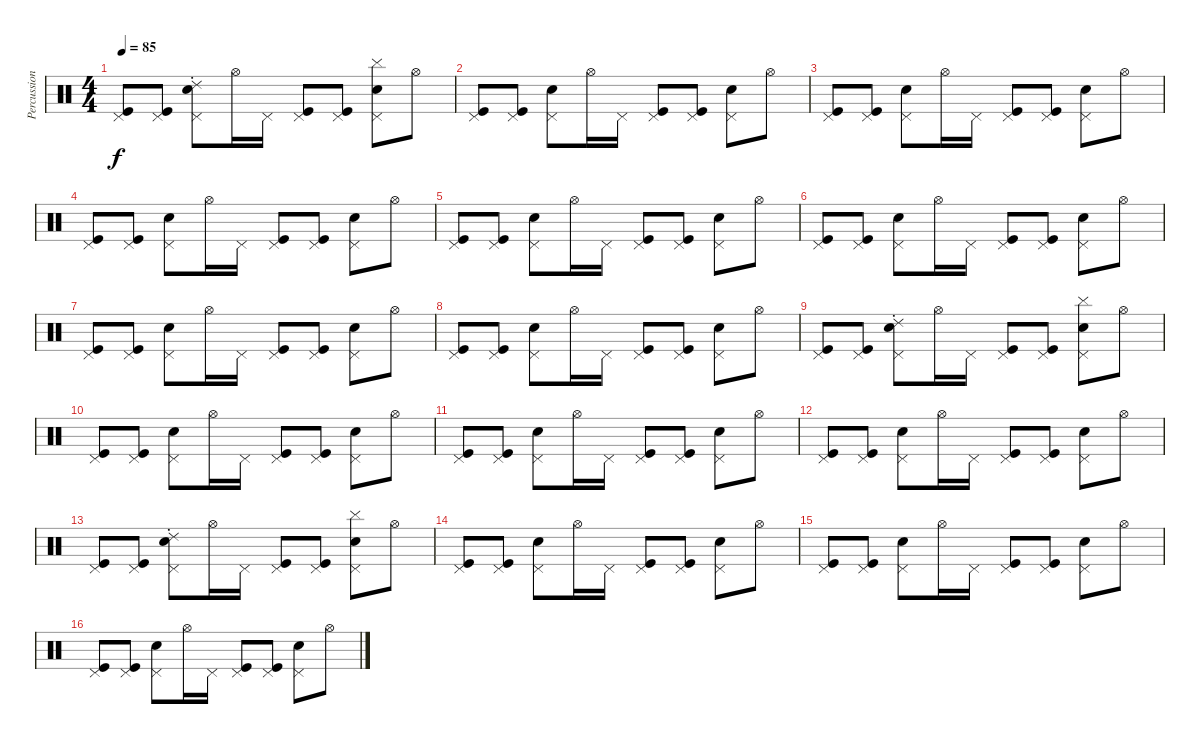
\track ("Percussions" "Percussion") {instrument percussion}
\staff {score}
\articulation defaults
\ts (4 4)
\tempo 85
\clef neutral
\ks c
("Pedal Hi-Hat (hit)" "Kick (hit)").8{dy f volume 16} ("Pedal Hi-Hat (hit)" "Kick (hit)").8 ("Pedal Hi-Hat (hit)" "Ride (choke) 2" "Electric Snare (hit)").8 "Hi-Hat (open)".16 "Pedal Hi-Hat (hit)".16 ("Pedal Hi-Hat (hit)" "Kick (hit)").8 ("Pedal Hi-Hat (hit)" "Kick (hit)").8 ("Pedal Hi-Hat (hit)" "Cymbal (hit)" "Electric Snare (hit)").8 "Hi-Hat (open)".8 |
("Pedal Hi-Hat (hit)" "Kick (hit)").8 ("Pedal Hi-Hat (hit)" "Kick (hit)").8 ("Pedal Hi-Hat (hit)" "Electric Snare (hit)").8 "Hi-Hat (open)".16 "Pedal Hi-Hat (hit)".16 ("Pedal Hi-Hat (hit)" "Kick (hit)").8 ("Pedal Hi-Hat (hit)" "Kick (hit)").8 ("Pedal Hi-Hat (hit)" "Electric Snare (hit)").8 "Hi-Hat (open)".8 |
("Pedal Hi-Hat (hit)" "Kick (hit)").8 ("Pedal Hi-Hat (hit)" "Kick (hit)").8 ("Pedal Hi-Hat (hit)" "Electric Snare (hit)").8 "Hi-Hat (open)".16 "Pedal Hi-Hat (hit)".16 ("Pedal Hi-Hat (hit)" "Kick (hit)").8 ("Pedal Hi-Hat (hit)" "Kick (hit)").8 ("Pedal Hi-Hat (hit)" "Electric Snare (hit)").8 "Hi-Hat (open)".8 |
("Pedal Hi-Hat (hit)" "Kick (hit)").8 ("Pedal Hi-Hat (hit)" "Kick (hit)").8 ("Pedal Hi-Hat (hit)" "Electric Snare (hit)").8 "Hi-Hat (open)".16 "Pedal Hi-Hat (hit)".16 ("Pedal Hi-Hat (hit)" "Kick (hit)").8 ("Pedal Hi-Hat (hit)" "Kick (hit)").8 ("Pedal Hi-Hat (hit)" "Electric Snare (hit)").8 "Hi-Hat (open)".8 |
("Pedal Hi-Hat (hit)" "Kick (hit)").8{volume 12} ("Pedal Hi-Hat (hit)" "Kick (hit)").8 ("Pedal Hi-Hat (hit)" "Electric Snare (hit)").8 "Hi-Hat (open)".16 "Pedal Hi-Hat (hit)".16 ("Pedal Hi-Hat (hit)" "Kick (hit)").8 ("Pedal Hi-Hat (hit)" "Kick (hit)").8 ("Pedal Hi-Hat (hit)" "Electric Snare (hit)").8 "Hi-Hat (open)".8 |
("Pedal Hi-Hat (hit)" "Kick (hit)").8 ("Pedal Hi-Hat (hit)" "Kick (hit)").8 ("Pedal Hi-Hat (hit)" "Electric Snare (hit)").8 "Hi-Hat (open)".16 "Pedal Hi-Hat (hit)".16 ("Pedal Hi-Hat (hit)" "Kick (hit)").8 ("Pedal Hi-Hat (hit)" "Kick (hit)").8 ("Pedal Hi-Hat (hit)" "Electric Snare (hit)").8 "Hi-Hat (open)".8 |
("Pedal Hi-Hat (hit)" "Kick (hit)").8 ("Pedal Hi-Hat (hit)" "Kick (hit)").8 ("Pedal Hi-Hat (hit)" "Electric Snare (hit)").8 "Hi-Hat (open)".16 "Pedal Hi-Hat (hit)".16 ("Pedal Hi-Hat (hit)" "Kick (hit)").8 ("Pedal Hi-Hat (hit)" "Kick (hit)").8 ("Pedal Hi-Hat (hit)" "Electric Snare (hit)").8 "Hi-Hat (open)".8 |
("Pedal Hi-Hat (hit)" "Kick (hit)").8 ("Pedal Hi-Hat (hit)" "Kick (hit)").8 ("Pedal Hi-Hat (hit)" "Electric Snare (hit)").8 "Hi-Hat (open)".16 "Pedal Hi-Hat (hit)".16 ("Pedal Hi-Hat (hit)" "Kick (hit)").8 ("Pedal Hi-Hat (hit)" "Kick (hit)").8 ("Pedal Hi-Hat (hit)" "Electric Snare (hit)").8 "Hi-Hat (open)".8 |
("Pedal Hi-Hat (hit)" "Kick (hit)").8{volume 16} ("Pedal Hi-Hat (hit)" "Kick (hit)").8 ("Pedal Hi-Hat (hit)" "Ride (choke) 2" "Electric Snare (hit)").8 "Hi-Hat (open)".16 "Pedal Hi-Hat (hit)".16 ("Pedal Hi-Hat (hit)" "Kick (hit)").8 ("Pedal Hi-Hat (hit)" "Kick (hit)").8 ("Pedal Hi-Hat (hit)" "Cymbal (hit)" "Electric Snare (hit)").8 "Hi-Hat (open)".8 |
("Pedal Hi-Hat (hit)" "Kick (hit)").8 ("Pedal Hi-Hat (hit)" "Kick (hit)").8 ("Pedal Hi-Hat (hit)" "Electric Snare (hit)").8 "Hi-Hat (open)".16 "Pedal Hi-Hat (hit)".16 ("Pedal Hi-Hat (hit)" "Kick (hit)").8 ("Pedal Hi-Hat (hit)" "Kick (hit)").8 ("Pedal Hi-Hat (hit)" "Electric Snare (hit)").8 "Hi-Hat (open)".8 |
("Pedal Hi-Hat (hit)" "Kick (hit)").8 ("Pedal Hi-Hat (hit)" "Kick (hit)").8 ("Pedal Hi-Hat (hit)" "Electric Snare (hit)").8 "Hi-Hat (open)".16 "Pedal Hi-Hat (hit)".16 ("Pedal Hi-Hat (hit)" "Kick (hit)").8 ("Pedal Hi-Hat (hit)" "Kick (hit)").8 ("Pedal Hi-Hat (hit)" "Electric Snare (hit)").8 "Hi-Hat (open)".8 |
("Pedal Hi-Hat (hit)" "Kick (hit)").8 ("Pedal Hi-Hat (hit)" "Kick (hit)").8 ("Pedal Hi-Hat (hit)" "Electric Snare (hit)").8 "Hi-Hat (open)".16 "Pedal Hi-Hat (hit)".16 ("Pedal Hi-Hat (hit)" "Kick (hit)").8 ("Pedal Hi-Hat (hit)" "Kick (hit)").8 ("Pedal Hi-Hat (hit)" "Electric Snare (hit)").8 "Hi-Hat (open)".8 |
("Pedal Hi-Hat (hit)" "Kick (hit)").8{volume 16} ("Pedal Hi-Hat (hit)" "Kick (hit)").8 ("Pedal Hi-Hat (hit)" "Ride (choke) 2" "Electric Snare (hit)").8 "Hi-Hat (open)".16 "Pedal Hi-Hat (hit)".16 ("Pedal Hi-Hat (hit)" "Kick (hit)").8 ("Pedal Hi-Hat (hit)" "Kick (hit)").8 ("Pedal Hi-Hat (hit)" "Cymbal (hit)" "Electric Snare (hit)").8 "Hi-Hat (open)".8 |
("Pedal Hi-Hat (hit)" "Kick (hit)").8 ("Pedal Hi-Hat (hit)" "Kick (hit)").8 ("Pedal Hi-Hat (hit)" "Electric Snare (hit)").8 "Hi-Hat (open)".16 "Pedal Hi-Hat (hit)".16 ("Pedal Hi-Hat (hit)" "Kick (hit)").8 ("Pedal Hi-Hat (hit)" "Kick (hit)").8 ("Pedal Hi-Hat (hit)" "Electric Snare (hit)").8 "Hi-Hat (open)".8 |
("Pedal Hi-Hat (hit)" "Kick (hit)").8 ("Pedal Hi-Hat (hit)" "Kick (hit)").8 ("Pedal Hi-Hat (hit)" "Electric Snare (hit)").8 "Hi-Hat (open)".16 "Pedal Hi-Hat (hit)".16 ("Pedal Hi-Hat (hit)" "Kick (hit)").8 ("Pedal Hi-Hat (hit)" "Kick (hit)").8 ("Pedal Hi-Hat (hit)" "Electric Snare (hit)").8 "Hi-Hat (open)".8 |
("Pedal Hi-Hat (hit)" "Kick (hit)").8 ("Pedal Hi-Hat (hit)" "Kick (hit)").8 ("Pedal Hi-Hat (hit)" "Electric Snare (hit)").8 "Hi-Hat (open)".16 "Pedal Hi-Hat (hit)".16 ("Pedal Hi-Hat (hit)" "Kick (hit)").8 ("Pedal Hi-Hat (hit)" "Kick (hit)").8 ("Pedal Hi-Hat (hit)" "Electric Snare (hit)").8 "Hi-Hat (open)".8
